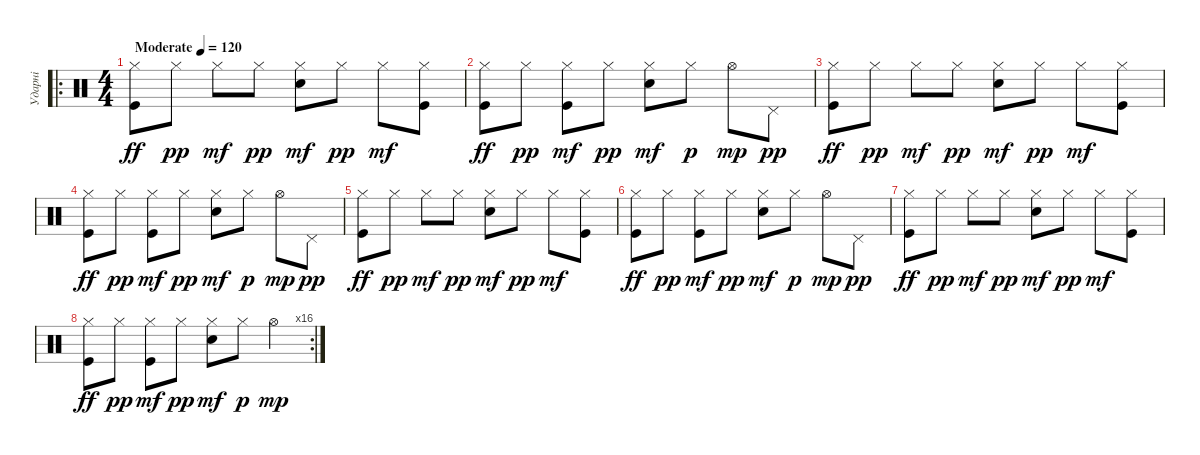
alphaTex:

\track ("Ударні" "Ударні") {instrument percussion}
\staff {score}
\articulation defaults
\ro
\ts (4 4)
\tempo (120 "Moderate")
\clef neutral
\ks c
("Hi-Hat (closed)" "Kick (hit)").8{dy ff} "Hi-Hat (closed)".8{dy pp} "Hi-Hat (closed)".8{dy mf} "Hi-Hat (closed)".8{dy pp} ("Hi-Hat (closed)" "Snare (hit) 2").8{dy mf} "Hi-Hat (closed)".8{dy pp} "Hi-Hat (closed)".8{dy mf} ("Hi-Hat (closed)" "Kick (hit)").8 |
("Hi-Hat (closed)" "Kick (hit)").8{dy ff} "Hi-Hat (closed)".8{dy pp} ("Hi-Hat (closed)" "Kick (hit)").8{dy mf} "Hi-Hat (closed)".8{dy pp} ("Hi-Hat (closed)" "Snare (hit) 2").8{dy mf} "Hi-Hat (closed)".8{dy p} "Hi-Hat (open)".8{dy mp} "Pedal Hi-Hat (hit)".8{dy pp} |
("Hi-Hat (closed)" "Kick (hit)").8{dy ff} "Hi-Hat (closed)".8{dy pp} "Hi-Hat (closed)".8{dy mf} "Hi-Hat (closed)".8{dy pp} ("Hi-Hat (closed)" "Snare (hit) 2").8{dy mf} "Hi-Hat (closed)".8{dy pp} "Hi-Hat (closed)".8{dy mf} ("Hi-Hat (closed)" "Kick (hit)").8 |
("Hi-Hat (closed)" "Kick (hit)").8{dy ff} "Hi-Hat (closed)".8{dy pp} ("Hi-Hat (closed)" "Kick (hit)").8{dy mf} "Hi-Hat (closed)".8{dy pp} ("Hi-Hat (closed)" "Snare (hit) 2").8{dy mf} "Hi-Hat (closed)".8{dy p} "Hi-Hat (open)".8{dy mp} "Pedal Hi-Hat (hit)".8{dy pp} |
("Hi-Hat (closed)" "Kick (hit)").8{dy ff} "Hi-Hat (closed)".8{dy pp} "Hi-Hat (closed)".8{dy mf} "Hi-Hat (closed)".8{dy pp} ("Hi-Hat (closed)" "Snare (hit) 2").8{dy mf} "Hi-Hat (closed)".8{dy pp} "Hi-Hat (closed)".8{dy mf} ("Hi-Hat (closed)" "Kick (hit)").8 |
("Hi-Hat (closed)" "Kick (hit)").8{dy ff} "Hi-Hat (closed)".8{dy pp} ("Hi-Hat (closed)" "Kick (hit)").8{dy mf} "Hi-Hat (closed)".8{dy pp} ("Hi-Hat (closed)" "Snare (hit) 2").8{dy mf} "Hi-Hat (closed)".8{dy p} "Hi-Hat (open)".8{dy mp} "Pedal Hi-Hat (hit)".8{dy pp} |
("Hi-Hat (closed)" "Kick (hit)").8{dy ff} "Hi-Hat (closed)".8{dy pp} "Hi-Hat (closed)".8{dy mf} "Hi-Hat (closed)".8{dy pp} ("Hi-Hat (closed)" "Snare (hit) 2").8{dy mf} "Hi-Hat (closed)".8{dy pp} "Hi-Hat (closed)".8{dy mf} ("Hi-Hat (closed)" "Kick (hit)").8 |
\rc 16
("Hi-Hat (closed)" "Kick (hit)").8{dy ff} "Hi-Hat (closed)".8{dy pp} ("Hi-Hat (closed)" "Kick (hit)").8{dy mf} "Hi-Hat (closed)".8{dy pp} ("Hi-Hat (closed)" "Snare (hit) 2").8{dy mf} "Hi-Hat (closed)".8{dy p} "Hi-Hat (open)".4{dy mp}
